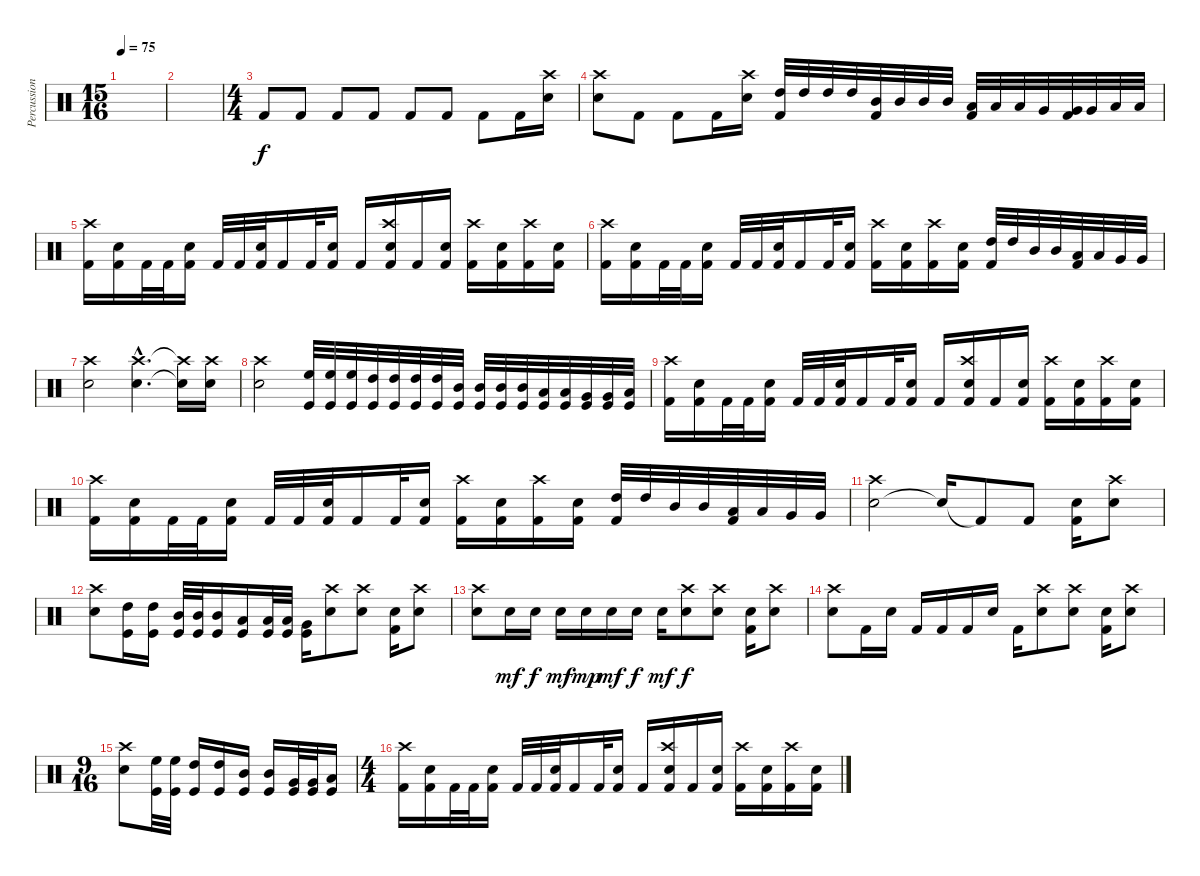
\track ("Percussion" "Percussion") {instrument percussion}
\staff {score}
\articulation defaults
\ts (15 16)
\tempo 75
\clef neutral
\ks c
|
|
\ts (4 4)
"Kick (hit) 2".8 "Kick (hit) 2".8 "Kick (hit) 2".8 "Kick (hit) 2".8 "Kick (hit) 2".8 "Kick (hit) 2".8 "Kick (hit) 2".8 "Kick (hit) 2".16 ("Crash high (hit)" "Snare (hit) 2").16 |
("Crash high (hit)" "Snare (hit) 2").8 "Kick (hit) 2".8 "Kick (hit) 2".8 "Kick (hit) 2".16 ("Crash high (hit)" "Snare (hit) 2").16 ("High Tom (hit)" "Kick (hit) 2").32 "High Tom (hit)".32 "High Tom (hit)".32 "High Tom (hit)".32 ("Mid Tom (hit)" "Kick (hit) 2").32 "Mid Tom (hit)".32 "Mid Tom (hit)".32 "Mid Tom (hit)".32 ("Low Tom (hit)" "Kick (hit) 2").32 "Low Tom (hit)".32 "Low Tom (hit)".32 "Very Low Tom (hit)".32 ("Very Low Tom (hit)" "Kick (hit) 2").32 "Very Low Tom (hit)".32 "Low Floor Tom (hit)".32 "Low Floor Tom (hit)".32 |
("Crash high (hit)" "Kick (hit) 2").16 ("Snare (hit) 2" "Kick (hit) 2").16 "Kick (hit) 2".32 "Kick (hit) 2".32 ("Snare (hit) 2" "Kick (hit) 2").16 "Kick (hit) 2".32 "Kick (hit) 2".32 ("Snare (hit) 2" "Kick (hit) 2").32 "Kick (hit) 2".16 "Kick (hit) 2".32 ("Snare (hit) 2" "Kick (hit) 2").16 "Kick (hit) 2".16 ("Crash high (hit)" "Snare (hit) 2" "Kick (hit) 2").16 "Kick (hit) 2".16 ("Snare (hit) 2" "Kick (hit) 2").16 ("Crash high (hit)" "Kick (hit) 2").16 ("Snare (hit) 2" "Kick (hit) 2").16 ("Crash high (hit)" "Kick (hit) 2").16 ("Snare (hit) 2" "Kick (hit) 2").16 |
("Crash high (hit)" "Kick (hit) 2").16 ("Snare (hit) 2" "Kick (hit) 2").16 "Kick (hit) 2".32 "Kick (hit) 2".32 ("Snare (hit) 2" "Kick (hit) 2").16 "Kick (hit) 2".32 "Kick (hit) 2".32 ("Snare (hit) 2" "Kick (hit) 2").32 "Kick (hit) 2".16 "Kick (hit) 2".32 ("Snare (hit) 2" "Kick (hit) 2").16 ("Crash high (hit)" "Kick (hit) 2").16 ("Snare (hit) 2" "Kick (hit) 2").16 ("Crash high (hit)" "Kick (hit) 2").16 ("Snare (hit) 2" "Kick (hit) 2").16 ("High Tom (hit)" "Kick (hit) 2").32 "High Tom (hit)".32 "Mid Tom (hit)".32 "Mid Tom (hit)".32 ("Low Tom (hit)" "Kick (hit) 2").32 "Low Tom (hit)".32 "Very Low Tom (hit)".32 "Very Low Tom (hit)".32 |
("Crash high (hit)" "Snare (hit) 2").2 ("Crash high (hit)"{hac} "Snare (hit) 2"{hac}).4{d} ("Crash high (hit)"{t} "Snare (hit) 2"{t}).16 ("Crash high (hit)" "Snare (hit) 2").16 |
("Crash high (hit)" "Snare (hit) 2").2 ("High Floor Tom (hit)" "Kick (hit)").32 ("High Floor Tom (hit)" "Kick (hit)").32 ("High Floor Tom (hit)" "Kick (hit)").32 ("High Tom (hit)" "Kick (hit)").32 ("High Tom (hit)" "Kick (hit)").32 ("High Tom (hit)" "Kick (hit)").32 ("High Tom (hit)" "Kick (hit)").32 ("Mid Tom (hit)" "Kick (hit)").32 ("Mid Tom (hit)" "Kick (hit)").32 ("Mid Tom (hit)" "Kick (hit)").32 ("Mid Tom (hit)" "Kick (hit)").32 ("Low Tom (hit)" "Kick (hit)").32 ("Low Tom (hit)" "Kick (hit)").32 ("Very Low Tom (hit)" "Kick (hit)").32 ("Very Low Tom (hit)" "Kick (hit)").32 ("Low Floor Tom (hit)" "Kick (hit)").32 |
("Crash high (hit)" "Kick (hit) 2").16 ("Snare (hit) 2" "Kick (hit) 2").16 "Kick (hit) 2".32 "Kick (hit) 2".32 ("Snare (hit) 2" "Kick (hit) 2").16 "Kick (hit) 2".32 "Kick (hit) 2".32 ("Snare (hit) 2" "Kick (hit) 2").32 "Kick (hit) 2".16 "Kick (hit) 2".32 ("Snare (hit) 2" "Kick (hit) 2").16 "Kick (hit) 2".16 ("Crash high (hit)" "Snare (hit) 2" "Kick (hit) 2").16 "Kick (hit) 2".16 ("Snare (hit) 2" "Kick (hit) 2").16 ("Crash high (hit)" "Kick (hit) 2").16 ("Snare (hit) 2" "Kick (hit) 2").16 ("Crash high (hit)" "Kick (hit) 2").16 ("Snare (hit) 2" "Kick (hit) 2").16 |
("Crash high (hit)" "Kick (hit) 2").16 ("Snare (hit) 2" "Kick (hit) 2").16 "Kick (hit) 2".32 "Kick (hit) 2".32 ("Snare (hit) 2" "Kick (hit) 2").16 "Kick (hit) 2".32 "Kick (hit) 2".32 ("Snare (hit) 2" "Kick (hit) 2").32 "Kick (hit) 2".16 "Kick (hit) 2".32 ("Snare (hit) 2" "Kick (hit) 2").16 ("Crash high (hit)" "Kick (hit) 2").16 ("Snare (hit) 2" "Kick (hit) 2").16 ("Crash high (hit)" "Kick (hit) 2").16 ("Snare (hit) 2" "Kick (hit) 2").16 ("High Tom (hit)" "Kick (hit) 2").32 "High Tom (hit)".32 "Mid Tom (hit)".32 "Mid Tom (hit)".32 ("Low Tom (hit)" "Kick (hit) 2").32 "Low Tom (hit)".32 "Very Low Tom (hit)".32 "Very Low Tom (hit)".32 |
("Snare (hit) 2" "Crash high (hit)").2 "Snare (hit)"{t}.16 "Kick (hit) 2"{t}.8 "Kick (hit) 2".8 ("Snare (hit) 2" "Kick (hit) 2").16 ("Crash high (hit)" "Snare (hit) 2").8 |
("Crash high (hit)" "Snare (hit) 2").8 ("High Tom (hit)" "Kick (hit)").16 ("High Tom (hit)" "Kick (hit)").16 ("Mid Tom (hit)" "Kick (hit)").32 ("Mid Tom (hit)" "Kick (hit)").32 ("Mid Tom (hit)" "Kick (hit)").16 ("Low Tom (hit)" "Kick (hit)").16 ("Low Tom (hit)" "Kick (hit)").32 ("Low Tom (hit)" "Kick (hit)").32 ("Very Low Tom (hit)" "Kick (hit)").16 ("Crash high (hit)" "Snare (hit) 2").8 ("Crash high (hit)" "Snare (hit) 2").8 ("Kick (hit) 2" "Snare (hit) 2").16 ("Crash high (hit)" "Snare (hit) 2").8 |
("Crash high (hit)" "Snare (hit) 2").8 "Snare (hit) 2".16{dy mf} "Snare (hit) 2".16{dy f} "Snare (hit) 2".16{dy mf} "Snare (hit) 2".16{dy mp} "Snare (hit) 2".16{dy mf} "Snare (hit) 2".16{dy f} "Snare (hit) 2".16{dy mf} ("Crash high (hit)" "Snare (hit) 2").8{dy f} ("Crash high (hit)" "Snare (hit) 2").8 ("Kick (hit) 2" "Snare (hit) 2").16 ("Crash high (hit)" "Snare (hit) 2").8 |
("Crash high (hit)" "Snare (hit) 2").8 "Kick (hit) 2".16 "Snare (hit) 2".16 "Kick (hit) 2".16 "Kick (hit) 2".16 "Kick (hit) 2".16 "Snare (hit) 2".16 "Kick (hit) 2".16 ("Crash high (hit)" "Snare (hit) 2").8 ("Crash high (hit)" "Snare (hit) 2").8 ("Kick (hit) 2" "Snare (hit) 2").16 ("Crash high (hit)" "Snare (hit) 2").8 |
\ts (9 16)
("Crash high (hit)" "Snare (hit) 2").8 ("High Floor Tom (hit)" "Kick (hit)").32 ("High Floor Tom (hit)" "Kick (hit)").32 ("High Tom (hit)" "Kick (hit)").16 ("High Tom (hit)" "Kick (hit)").16 ("Mid Tom (hit)" "Kick (hit)").16 ("Mid Tom (hit)" "Kick (hit)").16 ("Very Low Tom (hit)" "Kick (hit)").32 ("Very Low Tom (hit)" "Kick (hit)").32 ("Low Floor Tom (hit)" "Kick (hit)").16 |
\ts (4 4)
("Crash high (hit)" "Kick (hit) 2").16 ("Snare (hit) 2" "Kick (hit) 2").16 "Kick (hit) 2".32 "Kick (hit) 2".32 ("Snare (hit) 2" "Kick (hit) 2").16 "Kick (hit) 2".32 "Kick (hit) 2".32 ("Snare (hit) 2" "Kick (hit) 2").32 "Kick (hit) 2".16 "Kick (hit) 2".32 ("Snare (hit) 2" "Kick (hit) 2").16 "Kick (hit) 2".16 ("Crash high (hit)" "Snare (hit) 2" "Kick (hit) 2").16 "Kick (hit) 2".16 ("Snare (hit) 2" "Kick (hit) 2").16 ("Crash high (hit)" "Kick (hit) 2").16 ("Snare (hit) 2" "Kick (hit) 2").16 ("Crash high (hit)" "Kick (hit) 2").16 ("Snare (hit) 2" "Kick (hit) 2").16
